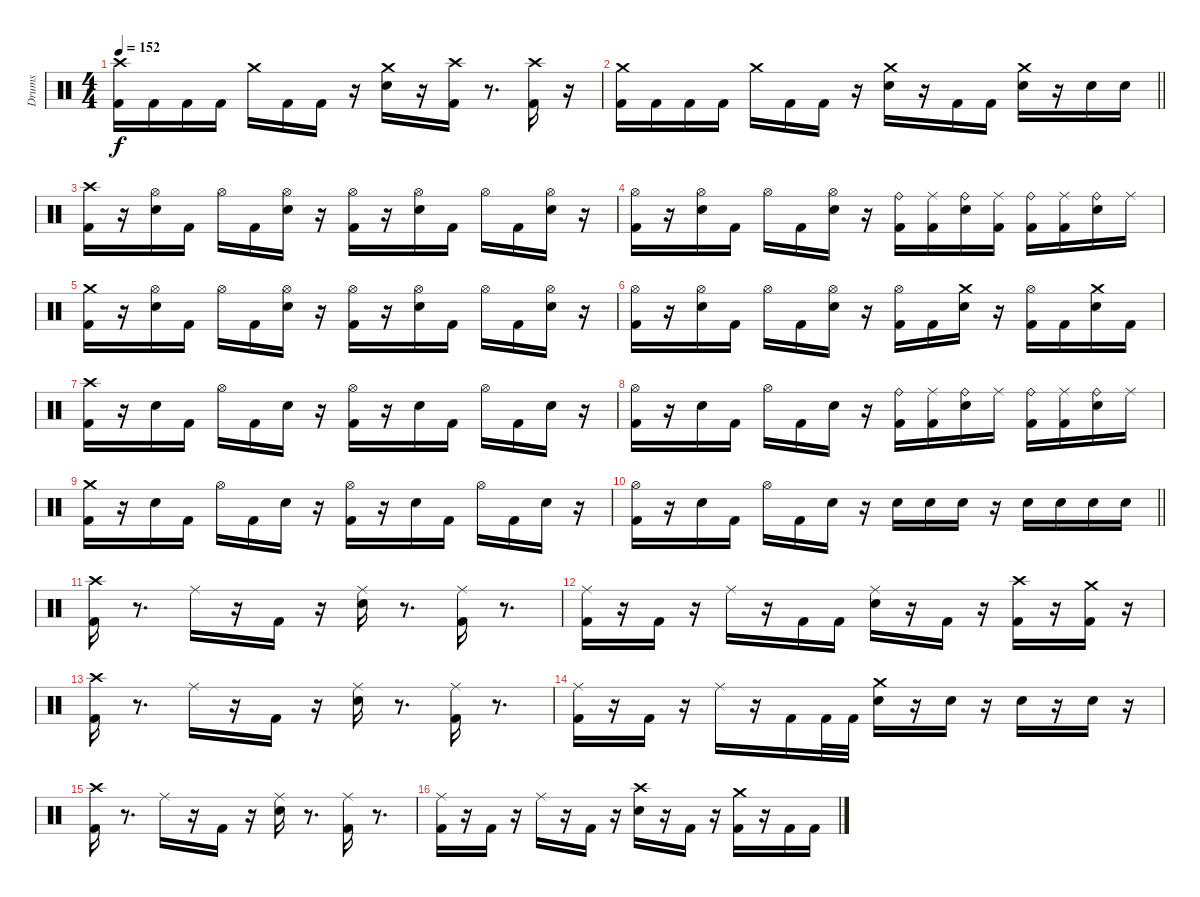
\track ("Drums" "Drums") {instrument percussion}
\staff {score}
\articulation defaults
\ts (4 4)
\tempo 152
\clef neutral
\ks c
("Kick (hit) 2" "Crash high (hit)").16{dy f} "Kick (hit) 2".16 "Kick (hit) 2".16 "Kick (hit) 2".16 "Crash medium (hit)".16 "Kick (hit) 2".16 "Kick (hit) 2".16 r.16 ("Snare (hit) 2" "Crash medium (hit)").16 r.16 ("Kick (hit) 2" "Crash high (hit)").16 r.8{d} ("Kick (hit) 2" "Crash high (hit)").16 r.16 |
\barLineRight lightlight
("Kick (hit) 2" "Crash medium (hit)").16 "Kick (hit) 2".16 "Kick (hit) 2".16 "Kick (hit) 2".16 "Crash medium (hit)".16 "Kick (hit) 2".16 "Kick (hit) 2".16 r.16 ("Snare (hit) 2" "Crash medium (hit)").16 r.16 "Kick (hit) 2".16 "Kick (hit) 2".16 ("Snare (hit) 2" "Crash medium (hit)").16 r.16 "Snare (hit) 2".16 "Snare (hit) 2".16 |
\section ("" " ")
("Kick (hit) 2" "Crash high (hit)").16 r.16 ("Snare (hit) 2" "Hi-Hat (open)").16 "Kick (hit) 2".16 "Hi-Hat (open)".16 "Kick (hit) 2".16 ("Snare (hit) 2" "Hi-Hat (open)").16 r.16 ("Kick (hit) 2" "Hi-Hat (open)").16 r.16 ("Snare (hit) 2" "Hi-Hat (open)").16 "Kick (hit) 2".16 "Hi-Hat (open)".16 "Kick (hit) 2".16 ("Snare (hit) 2" "Hi-Hat (open)").16 r.16 |
("Kick (hit) 2" "Hi-Hat (open)").16 r.16 ("Snare (hit) 2" "Hi-Hat (open)").16 "Kick (hit) 2".16 "Hi-Hat (open)".16 "Kick (hit) 2".16 ("Snare (hit) 2" "Hi-Hat (open)").16 r.16 ("Kick (hit) 2" "Ride (bell)").16 ("Kick (hit) 2" "Ride (middle)").16 ("Snare (hit) 2" "Ride (bell)").16 ("Kick (hit) 2" "Ride (middle)").16 ("Kick (hit) 2" "Ride (bell)").16 ("Kick (hit) 2" "Ride (middle)").16 ("Snare (hit) 2" "Ride (bell)").16 "Ride (middle)".16 |
("Kick (hit) 2" "Crash medium (hit)").16 r.16 ("Snare (hit) 2" "Hi-Hat (open)").16 "Kick (hit) 2".16 "Hi-Hat (open)".16 "Kick (hit) 2".16 ("Snare (hit) 2" "Hi-Hat (open)").16 r.16 ("Kick (hit) 2" "Hi-Hat (open)").16 r.16 ("Snare (hit) 2" "Hi-Hat (open)").16 "Kick (hit) 2".16 "Hi-Hat (open)".16 "Kick (hit) 2".16 ("Snare (hit) 2" "Hi-Hat (open)").16 r.16 |
("Kick (hit) 2" "Hi-Hat (open)").16 r.16 ("Snare (hit) 2" "Hi-Hat (open)").16 "Kick (hit) 2".16 "Hi-Hat (open)".16 "Kick (hit) 2".16 ("Snare (hit) 2" "Hi-Hat (open)").16 r.16 ("Kick (hit) 2" "Hi-Hat (open)").16 "Kick (hit) 2".16 ("Snare (hit) 2" "Crash medium (hit)").16 r.16 ("Kick (hit) 2" "Hi-Hat (open)").16 "Kick (hit) 2".16 ("Snare (hit) 2" "Crash medium (hit)").16 "Kick (hit) 2".16 |
("Kick (hit) 2" "Crash high (hit)").16 r.16 "Snare (hit) 2".16 "Kick (hit) 2".16 "Hi-Hat (open)".16 "Kick (hit) 2".16 "Snare (hit) 2".16 r.16 ("Kick (hit) 2" "Hi-Hat (open)").16 r.16 "Snare (hit) 2".16 "Kick (hit) 2".16 "Hi-Hat (open)".16 "Kick (hit) 2".16 "Snare (hit) 2".16 r.16 |
("Kick (hit) 2" "Hi-Hat (open)").16 r.16 "Snare (hit) 2".16 "Kick (hit) 2".16 "Hi-Hat (open)".16 "Kick (hit) 2".16 "Snare (hit) 2".16 r.16 ("Kick (hit) 2" "Ride (bell)").16 ("Kick (hit) 2" "Ride (middle)").16 ("Snare (hit) 2" "Ride (bell)").16 "Ride (middle)".16 ("Kick (hit) 2" "Ride (bell)").16 ("Kick (hit) 2" "Ride (middle)").16 ("Snare (hit) 2" "Ride (bell)").16 "Ride (middle)".16 |
("Kick (hit) 2" "Crash medium (hit)").16 r.16 "Snare (hit) 2".16 "Kick (hit) 2".16 "Hi-Hat (open)".16 "Kick (hit) 2".16 "Snare (hit) 2".16 r.16 ("Kick (hit) 2" "Hi-Hat (open)").16 r.16 "Snare (hit) 2".16 "Kick (hit) 2".16 "Hi-Hat (open)".16 "Kick (hit) 2".16 "Snare (hit) 2".16 r.16 |
\barLineRight lightlight
("Kick (hit) 2" "Hi-Hat (open)").16 r.16 "Snare (hit) 2".16 "Kick (hit) 2".16 "Hi-Hat (open)".16 "Kick (hit) 2".16 "Snare (hit) 2".16 r.16 "Snare (hit) 2".16 "Snare (hit) 2".16 "Snare (hit) 2".16 r.16 "Snare (hit) 2".16 "Snare (hit) 2".16 "Snare (hit) 2".16 "Snare (hit) 2".16 |
\section ("" " ")
("Kick (hit) 2" "Crash high (hit)").16 r.8{d} "Ride (middle)".16 r.16 "Kick (hit) 2".16 r.16 ("Snare (hit) 2" "Ride (middle)").16 r.8{d} ("Kick (hit) 2" "Ride (middle)").16 r.8{d} |
("Kick (hit) 2" "Ride (middle)").16 r.16 "Kick (hit) 2".16 r.16 "Ride (middle)".16 r.16 "Kick (hit) 2".16 "Kick (hit) 2".16 ("Snare (hit) 2" "Ride (middle)").16 r.16 "Kick (hit) 2".16 r.16 ("Kick (hit) 2" "Crash high (hit)").16 r.16 ("Kick (hit) 2" "Crash medium (hit)").16 r.16 |
("Kick (hit) 2" "Crash high (hit)").16 r.8{d} "Ride (middle)".16 r.16 "Kick (hit) 2".16 r.16 ("Snare (hit) 2" "Ride (middle)").16 r.8{d} ("Kick (hit) 2" "Ride (middle)").16 r.8{d} |
("Kick (hit) 2" "Ride (middle)").16 r.16 "Kick (hit) 2".16 r.16 "Ride (middle)".16 r.16 "Kick (hit) 2".16 "Kick (hit) 2".32 "Kick (hit) 2".32 ("Snare (hit) 2" "Crash medium (hit)").16 r.16 "Snare (hit) 2".16 r.16 "Snare (hit) 2".16 r.16 "Snare (hit) 2".16 r.16 |
("Kick (hit) 2" "Crash high (hit)").16 r.8{d} "Ride (middle)".16 r.16 "Kick (hit) 2".16 r.16 ("Snare (hit) 2" "Ride (middle)").16 r.8{d} ("Kick (hit) 2" "Ride (middle)").16 r.8{d} |
("Kick (hit) 2" "Ride (middle)").16 r.16 "Kick (hit) 2".16 r.16 "Ride (middle)".16 r.16 "Kick (hit) 2".16 r.16 ("Snare (hit) 2" "Crash high (hit)").16 r.16 "Kick (hit) 2".16 r.16 ("Kick (hit) 2" "Crash medium (hit)").16 r.16 "Kick (hit) 2".16 "Kick (hit) 2".16
